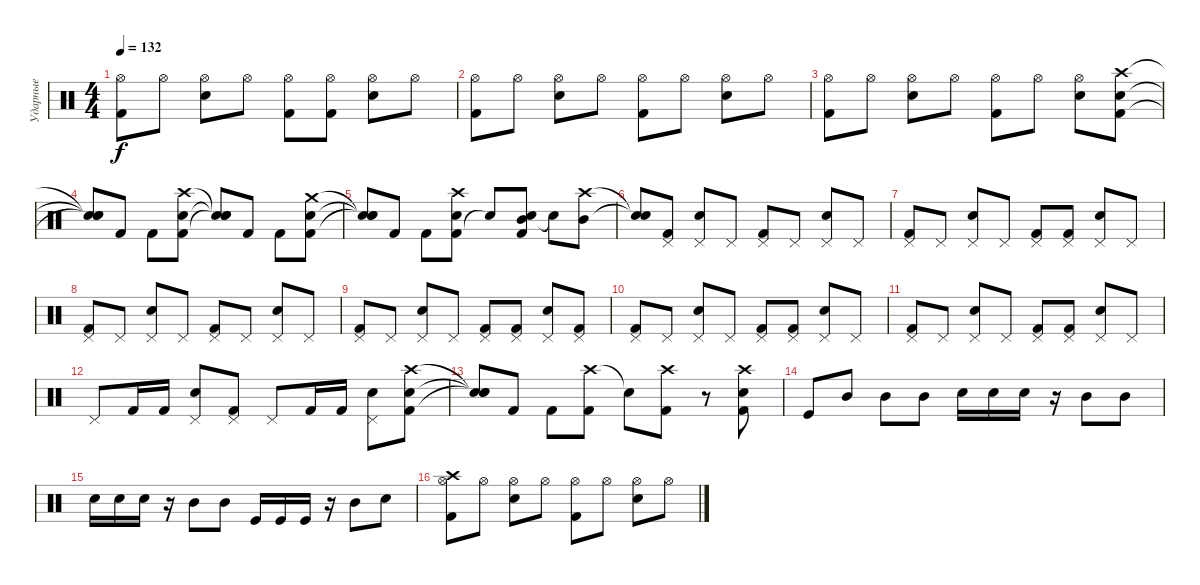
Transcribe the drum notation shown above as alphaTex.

\track ("Ударные" "Ударные") {instrument percussion}
\staff {score}
\articulation defaults
\ts (4 4)
\tempo 132
\clef neutral
\ks c
("Hi-Hat (open)" "Kick (hit) 2").8{dy f} "Hi-Hat (open)".8 ("Hi-Hat (open)" "Electric Snare (hit)").8 "Hi-Hat (open)".8 ("Hi-Hat (open)" "Kick (hit) 2").8 ("Hi-Hat (open)" "Kick (hit) 2").8 ("Hi-Hat (open)" "Electric Snare (hit)").8 "Hi-Hat (open)".8 |
("Hi-Hat (open)" "Kick (hit) 2").8 "Hi-Hat (open)".8 ("Hi-Hat (open)" "Electric Snare (hit)").8 "Hi-Hat (open)".8 ("Hi-Hat (open)" "Kick (hit) 2").8 "Hi-Hat (open)".8 ("Hi-Hat (open)" "Electric Snare (hit)").8 "Hi-Hat (open)".8 |
("Hi-Hat (open)" "Kick (hit) 2").8 "Hi-Hat (open)".8 ("Hi-Hat (open)" "Electric Snare (hit)").8 "Hi-Hat (open)".8 ("Hi-Hat (open)" "Kick (hit) 2").8 "Hi-Hat (open)".8 ("Hi-Hat (open)" "Electric Snare (hit)").8 ("Kick (hit) 2" "Electric Snare (hit)" "Crash high (hit)").8 |
("Snare (hit)"{t} "Snare (hit)"{t} "Snare (hit)"{t}).8 "Kick (hit) 2".8 "Kick (hit) 2".8 ("Kick (hit) 2" "Crash high (hit)" "Electric Snare (hit)").8 ("Snare (hit)"{t} "Snare (hit)"{t} "Snare (hit)"{t}).8 "Kick (hit) 2".8 "Kick (hit) 2".8 ("Snare (hit) 2" "Kick (hit) 2" "Crash medium (hit)").8 |
("Snare (hit)"{t} "Snare (hit)"{t} "Snare (hit)"{t}).8 "Kick (hit) 2".8 "Kick (hit) 2".8 ("Kick (hit) 2" "Crash high (hit)" "Electric Snare (hit)").8 "Snare (hit)"{t}.8 ("Mid Tom (hit)" "Kick (hit) 2" "Snare (hit) 2").8 "Snare (hit)"{t}.8 ("Crash high (hit)" "Mid Tom (hit)").8 |
("Snare (hit)"{t} "Snare (hit)"{t}).8 ("Kick (hit) 2" "Pedal Hi-Hat (hit)").8 ("Electric Snare (hit)" "Pedal Hi-Hat (hit)").8 "Pedal Hi-Hat (hit)".8 ("Kick (hit) 2" "Pedal Hi-Hat (hit)").8 "Pedal Hi-Hat (hit)".8 ("Electric Snare (hit)" "Pedal Hi-Hat (hit)").8 "Pedal Hi-Hat (hit)".8 |
("Kick (hit) 2" "Pedal Hi-Hat (hit)").8 "Pedal Hi-Hat (hit)".8 ("Electric Snare (hit)" "Pedal Hi-Hat (hit)").8 "Pedal Hi-Hat (hit)".8 ("Kick (hit) 2" "Pedal Hi-Hat (hit)").8 ("Kick (hit) 2" "Pedal Hi-Hat (hit)").8 ("Electric Snare (hit)" "Pedal Hi-Hat (hit)").8 "Pedal Hi-Hat (hit)".8 |
("Kick (hit) 2" "Pedal Hi-Hat (hit)").8 "Pedal Hi-Hat (hit)".8 ("Electric Snare (hit)" "Pedal Hi-Hat (hit)").8 "Pedal Hi-Hat (hit)".8 ("Kick (hit) 2" "Pedal Hi-Hat (hit)").8 "Pedal Hi-Hat (hit)".8 ("Electric Snare (hit)" "Pedal Hi-Hat (hit)").8 "Pedal Hi-Hat (hit)".8 |
("Kick (hit) 2" "Pedal Hi-Hat (hit)").8 "Pedal Hi-Hat (hit)".8 ("Electric Snare (hit)" "Pedal Hi-Hat (hit)").8 "Pedal Hi-Hat (hit)".8 ("Kick (hit) 2" "Pedal Hi-Hat (hit)").8 ("Kick (hit) 2" "Pedal Hi-Hat (hit)").8 ("Electric Snare (hit)" "Pedal Hi-Hat (hit)").8 ("Kick (hit) 2" "Pedal Hi-Hat (hit)").8 |
("Kick (hit) 2" "Pedal Hi-Hat (hit)").8 "Pedal Hi-Hat (hit)".8 ("Electric Snare (hit)" "Pedal Hi-Hat (hit)").8 "Pedal Hi-Hat (hit)".8 ("Kick (hit) 2" "Pedal Hi-Hat (hit)").8 ("Kick (hit) 2" "Pedal Hi-Hat (hit)").8 ("Electric Snare (hit)" "Pedal Hi-Hat (hit)").8 "Pedal Hi-Hat (hit)".8 |
("Kick (hit) 2" "Pedal Hi-Hat (hit)").8 "Pedal Hi-Hat (hit)".8 ("Electric Snare (hit)" "Pedal Hi-Hat (hit)").8 "Pedal Hi-Hat (hit)".8 ("Kick (hit) 2" "Pedal Hi-Hat (hit)").8 ("Kick (hit) 2" "Pedal Hi-Hat (hit)").8 ("Electric Snare (hit)" "Pedal Hi-Hat (hit)").8 "Pedal Hi-Hat (hit)".8 |
"Pedal Hi-Hat (hit)".8 "Kick (hit) 2".16 "Kick (hit) 2".16 ("Pedal Hi-Hat (hit)" "Electric Snare (hit)").8 ("Pedal Hi-Hat (hit)" "Kick (hit) 2").8 "Pedal Hi-Hat (hit)".8 "Kick (hit) 2".16 "Kick (hit) 2".16 ("Pedal Hi-Hat (hit)" "Snare (hit) 2").8 ("Crash high (hit)" "Kick (hit) 2" "Electric Snare (hit)").8 |
("Snare (hit)"{t} "Snare (hit)"{t} "Snare (hit)"{t}).8 "Kick (hit) 2".8 "Kick (hit) 2".8 ("Crash high (hit)" "Kick (hit) 2").8 "Snare (hit)"{t}.8 ("Crash high (hit)" "Kick (hit) 2").8 r.8 ("Crash high (hit)" "Electric Snare (hit)" "Kick (hit) 2").8 |
"Kick (hit)".8 "Mid Tom (hit)".8 "Mid Tom (hit)".8 "Mid Tom (hit)".8 "Snare (hit) 2".16 "Snare (hit) 2".16 "Snare (hit) 2".16 r.16 "Mid Tom (hit)".8 "Mid Tom (hit)".8 |
"Snare (hit) 2".16 "Snare (hit) 2".16 "Snare (hit) 2".16 r.16 "Mid Tom (hit)".8 "Mid Tom (hit)".8 "Kick (hit)".16 "Kick (hit)".16 "Kick (hit)".16 r.16 "Mid Tom (hit)".8 "Electric Snare (hit)".8 |
("Crash high (hit)" "Hi-Hat (open)" "Kick (hit) 2").8 "Hi-Hat (open)".8 ("Hi-Hat (open)" "Electric Snare (hit)").8 "Hi-Hat (open)".8 ("Hi-Hat (open)" "Kick (hit) 2").8 "Hi-Hat (open)".8 ("Hi-Hat (open)" "Electric Snare (hit)").8 "Hi-Hat (open)".8
